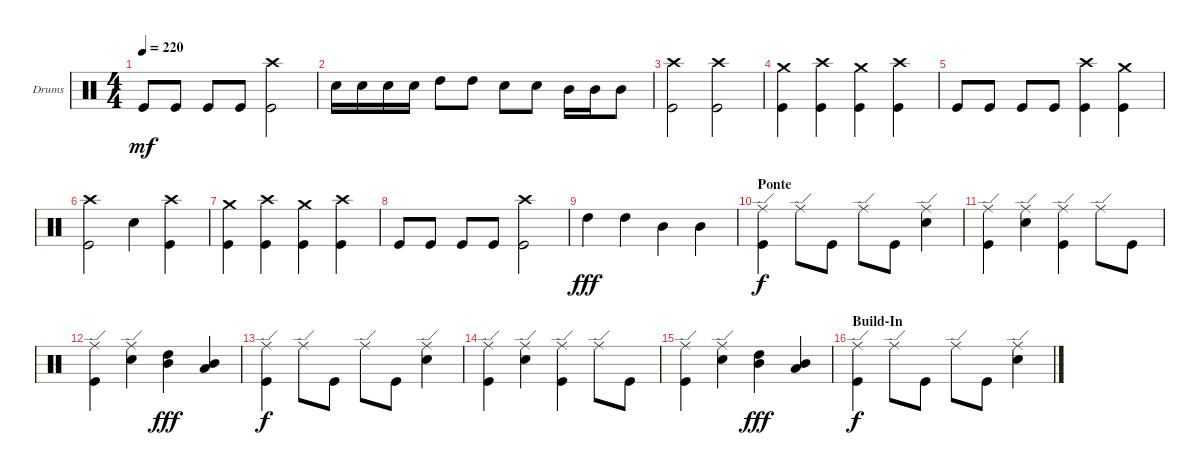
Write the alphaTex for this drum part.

\defaultSystemsLayout 4
\bracketExtendMode groupsimilarinstruments
\firstSystemTrackNameOrientation horizontal
\otherSystemsTrackNameOrientation horizontal
\track ("Drumkit" "Drums") {instrument percussion}
\staff {score}
\articulation defaults
\ts (4 4)
\tempo 220
\clef neutral
\ks c "Kick (hit)".8{dy mf} "Kick (hit)".8 "Kick (hit)".8 "Kick (hit)".8
("Crash high (hit)" "Kick (hit)").2 |
"Snare (hit) 2".16 "Snare (hit) 2".16 "Snare (hit) 2".16 "Snare (hit) 2".16 "High Tom (hit)".8 "High Tom (hit)".8 "Snare (hit) 2".8 "Snare (hit) 2".8 "Mid Tom (hit)".16 "Mid Tom (hit)".16 "Mid Tom (hit)".8 |
("Crash high (hit)" "Kick (hit)").2 ("Crash high (hit)" "Kick (hit)").2 |
("Crash medium (hit)" "Kick (hit)").4 ("Crash high (hit)" "Kick (hit)").4 ("Crash medium (hit)" "Kick (hit)").4 ("Crash high (hit)" "Kick (hit)").4 |
"Kick (hit)".8 "Kick (hit)".8 "Kick (hit)".8 "Kick (hit)".8 ("Crash high (hit)" "Kick (hit)").4 ("Crash medium (hit)" "Kick (hit)").4 |
("Crash high (hit)" "Kick (hit)").2 "Snare (hit) 2".4 ("Crash high (hit)" "Kick (hit)").4 |
("Crash medium (hit)" "Kick (hit)").4 ("Crash high (hit)" "Kick (hit)").4 ("Crash medium (hit)" "Kick (hit)").4 ("Crash high (hit)" "Kick (hit)").4 |
"Kick (hit)".8 "Kick (hit)".8 "Kick (hit)".8 "Kick (hit)".8 ("Crash high (hit)" "Kick (hit)").2 |
"High Tom (hit)".4{dy fff} "High Tom (hit)".4 "Mid Tom (hit)".4 "Mid Tom (hit)".4 |
\section ("" "Ponte")
("Kick (hit)" "Ride (edge)").4{dy f} "Ride (edge)".8 "Kick (hit)".8 "Ride (edge)".8 "Kick (hit)".8 ("Snare (hit) 2" "Ride (edge)").4 |
("Kick (hit)" "Ride (edge)").4 ("Snare (hit) 2" "Ride (edge)").4 ("Kick (hit)" "Ride (edge)").4 "Ride (edge)".8 "Kick (hit)".8 |
("Kick (hit)" "Ride (edge)").4 ("Snare (hit) 2" "Ride (edge)").4 ("High Tom (hit)" "Mid Tom (hit)").4{dy fff} ("Low Tom (hit)" "Mid Tom (hit)").4 |
("Kick (hit)" "Ride (edge)").4{dy f} "Ride (edge)".8 "Kick (hit)".8 "Ride (edge)".8 "Kick (hit)".8 ("Snare (hit) 2" "Ride (edge)").4 |
("Kick (hit)" "Ride (edge)").4 ("Snare (hit) 2" "Ride (edge)").4 ("Kick (hit)" "Ride (edge)").4 "Ride (edge)".8 "Kick (hit)".8 |
("Kick (hit)" "Ride (edge)").4 ("Snare (hit) 2" "Ride (edge)").4 ("High Tom (hit)" "Mid Tom (hit)").4{dy fff} ("Low Tom (hit)" "Mid Tom (hit)").4 |
\section ("" "Build-In")
("Kick (hit)" "Ride (edge)").4{dy f} "Ride (edge)".8 "Kick (hit)".8 "Ride (edge)".8 "Kick (hit)".8 ("Snare (hit) 2" "Ride (edge)").4
